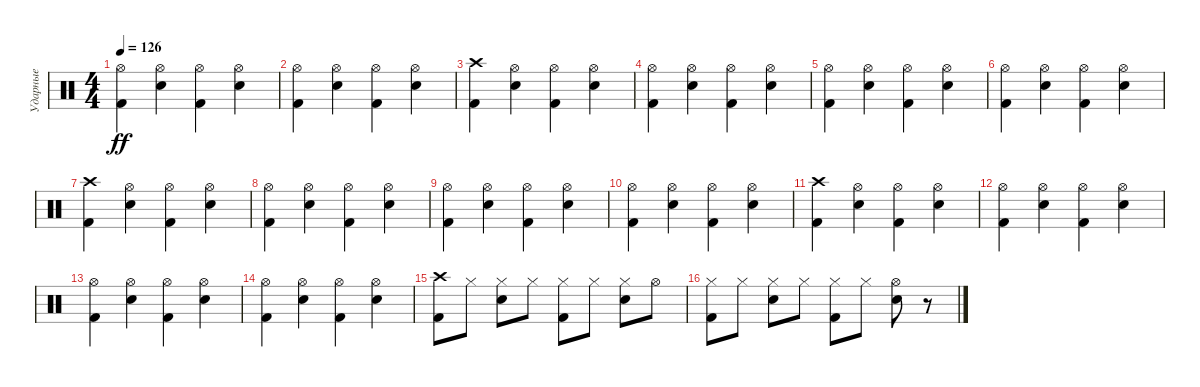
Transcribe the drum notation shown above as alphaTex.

\track ("Ударные" "Ударные") {instrument percussion}
\staff {score}
\articulation defaults
\ts (4 4)
\tempo 126
\clef neutral
\ks c
("Hi-Hat (open)" "Kick (hit) 2").4{dy ff} ("Hi-Hat (open)" "Electric Snare (hit)").4 ("Hi-Hat (open)" "Kick (hit) 2").4 ("Hi-Hat (open)" "Electric Snare (hit)").4 |
("Hi-Hat (open)" "Kick (hit) 2").4 ("Hi-Hat (open)" "Electric Snare (hit)").4 ("Hi-Hat (open)" "Kick (hit) 2").4 ("Hi-Hat (open)" "Electric Snare (hit)").4 |
("Crash high (hit)" "Kick (hit) 2").4 ("Hi-Hat (open)" "Electric Snare (hit)").4 ("Hi-Hat (open)" "Kick (hit) 2").4 ("Hi-Hat (open)" "Electric Snare (hit)").4 |
("Hi-Hat (open)" "Kick (hit) 2").4 ("Hi-Hat (open)" "Electric Snare (hit)").4 ("Hi-Hat (open)" "Kick (hit) 2").4 ("Hi-Hat (open)" "Electric Snare (hit)").4 |
("Hi-Hat (open)" "Kick (hit) 2").4 ("Hi-Hat (open)" "Electric Snare (hit)").4 ("Hi-Hat (open)" "Kick (hit) 2").4 ("Hi-Hat (open)" "Electric Snare (hit)").4 |
("Hi-Hat (open)" "Kick (hit) 2").4 ("Hi-Hat (open)" "Electric Snare (hit)").4 ("Hi-Hat (open)" "Kick (hit) 2").4 ("Hi-Hat (open)" "Electric Snare (hit)").4 |
("Crash high (hit)" "Kick (hit) 2").4 ("Hi-Hat (open)" "Electric Snare (hit)").4 ("Hi-Hat (open)" "Kick (hit) 2").4 ("Hi-Hat (open)" "Electric Snare (hit)").4 |
("Hi-Hat (open)" "Kick (hit) 2").4 ("Hi-Hat (open)" "Electric Snare (hit)").4 ("Hi-Hat (open)" "Kick (hit) 2").4 ("Hi-Hat (open)" "Electric Snare (hit)").4 |
("Hi-Hat (open)" "Kick (hit) 2").4 ("Hi-Hat (open)" "Electric Snare (hit)").4 ("Hi-Hat (open)" "Kick (hit) 2").4 ("Hi-Hat (open)" "Electric Snare (hit)").4 |
("Hi-Hat (open)" "Kick (hit) 2").4 ("Hi-Hat (open)" "Electric Snare (hit)").4 ("Hi-Hat (open)" "Kick (hit) 2").4 ("Hi-Hat (open)" "Electric Snare (hit)").4 |
("Crash high (hit)" "Kick (hit) 2").4 ("Hi-Hat (open)" "Electric Snare (hit)").4 ("Hi-Hat (open)" "Kick (hit) 2").4 ("Hi-Hat (open)" "Electric Snare (hit)").4 |
("Hi-Hat (open)" "Kick (hit) 2").4 ("Hi-Hat (open)" "Electric Snare (hit)").4 ("Hi-Hat (open)" "Kick (hit) 2").4 ("Hi-Hat (open)" "Electric Snare (hit)").4 |
("Hi-Hat (open)" "Kick (hit) 2").4 ("Hi-Hat (open)" "Electric Snare (hit)").4 ("Hi-Hat (open)" "Kick (hit) 2").4 ("Hi-Hat (open)" "Electric Snare (hit)").4 |
("Hi-Hat (open)" "Kick (hit) 2").4 ("Hi-Hat (open)" "Electric Snare (hit)").4 ("Hi-Hat (open)" "Kick (hit) 2").4 ("Hi-Hat (open)" "Electric Snare (hit)").4 |
("Crash high (hit)" "Kick (hit) 2").8 "Hi-Hat (closed)".8 ("Hi-Hat (closed)" "Electric Snare (hit)").8 "Hi-Hat (closed)".8 ("Hi-Hat (closed)" "Kick (hit) 2").8 "Hi-Hat (closed)".8 ("Electric Snare (hit)" "Hi-Hat (closed)").8 "Hi-Hat (open)".8 |
("Hi-Hat (closed)" "Kick (hit) 2").8 "Hi-Hat (closed)".8 ("Hi-Hat (closed)" "Electric Snare (hit)").8 "Hi-Hat (closed)".8 ("Hi-Hat (closed)" "Kick (hit) 2").8 "Hi-Hat (closed)".8 ("Electric Snare (hit)" "Hi-Hat (open)").8 r.8
